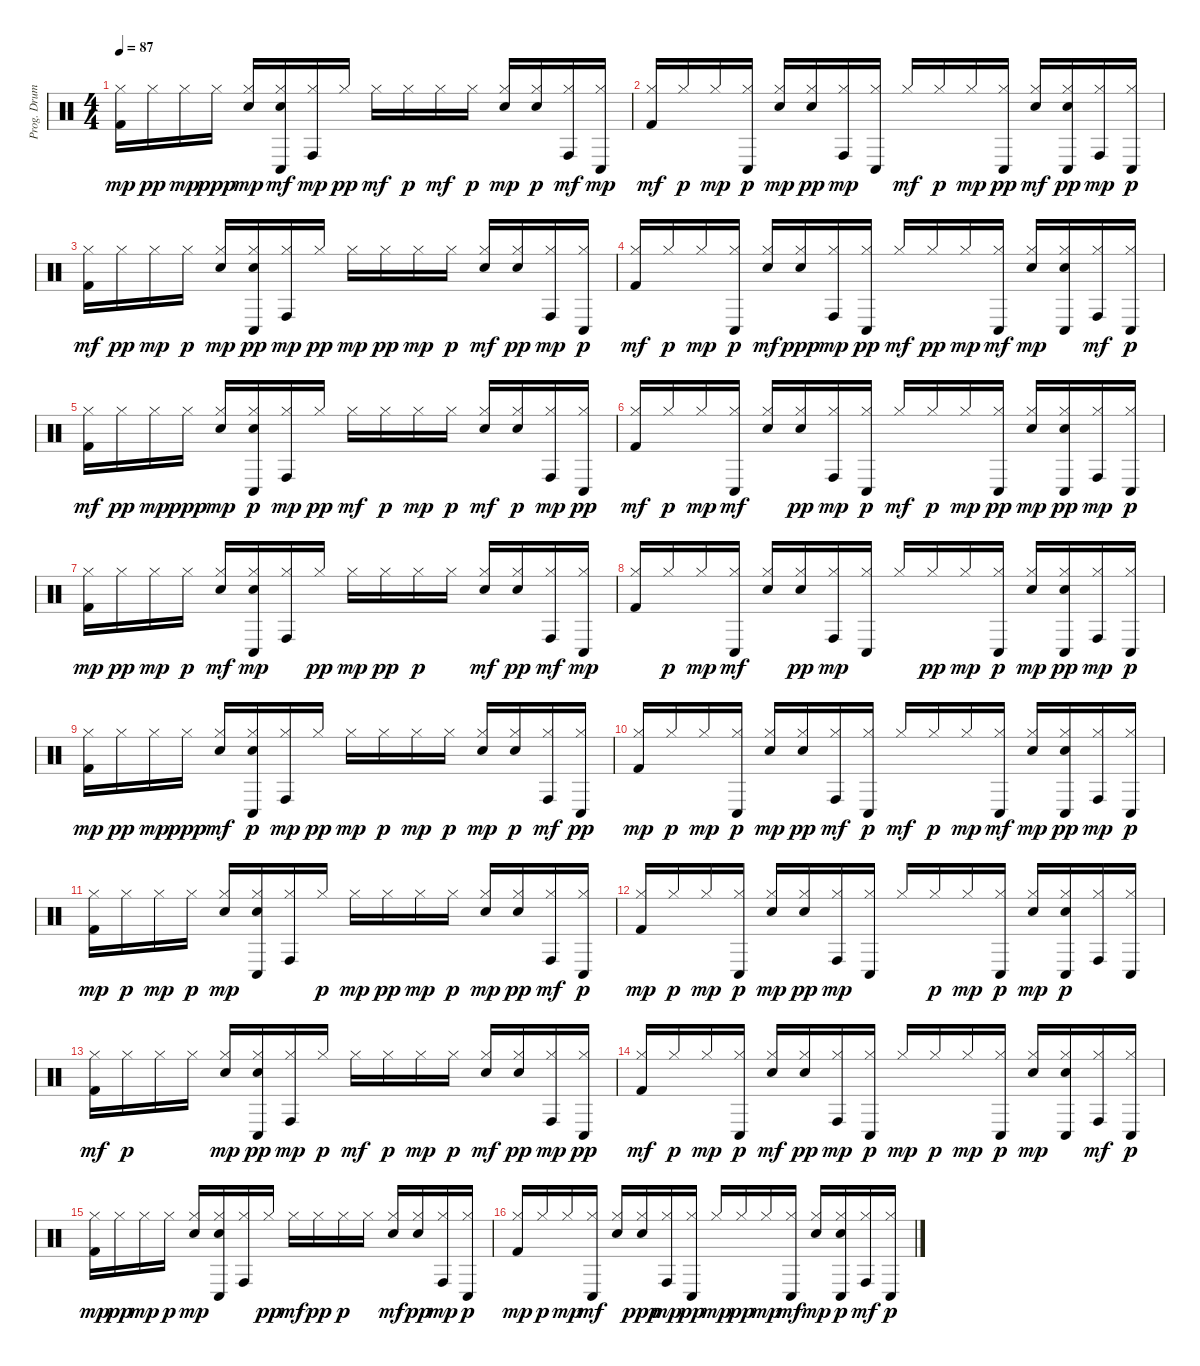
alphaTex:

\track ("Prog. Drums" "Prog. Drum") {instrument percussion}
\staff {score}
\articulation defaults
\ts (4 4)
\tempo 87
\clef neutral
\ks c
("Kick (hit) 2" "Hi-Hat (closed)").16{dy mp} "Hi-Hat (closed)".16{dy pp} "Hi-Hat (closed)".16{dy mp} "Hi-Hat (closed)".16{dy ppp} ("Snare (hit) 2" "Hi-Hat (closed)").16{dy mp} ("Snare (hit) 2" "Hi-Hat (closed)" "Conga low (hit)").16{dy mf} ("Conga high (hit)" "Hi-Hat (closed)").16{dy mp} "Hi-Hat (closed)".16{dy pp} "Hi-Hat (closed)".16{dy mf} "Hi-Hat (closed)".16{dy p} "Hi-Hat (closed)".16{dy mf} "Hi-Hat (closed)".16{dy p} ("Hi-Hat (closed)" "Snare (hit) 2").16{dy mp} ("Snare (hit) 2" "Hi-Hat (closed)").16{dy p} ("Conga high (hit)" "Hi-Hat (closed)").16{dy mf} ("Hi-Hat (closed)" "Conga low (hit)").16{dy mp} |
("Hi-Hat (closed)" "Kick (hit) 2").16{dy mf} "Hi-Hat (closed)".16{dy p} "Hi-Hat (closed)".16{dy mp} ("Conga low (hit)" "Hi-Hat (closed)").16{dy p} ("Snare (hit) 2" "Hi-Hat (closed)").16{dy mp} ("Snare (hit) 2" "Hi-Hat (closed)").16{dy pp} ("Conga high (hit)" "Hi-Hat (closed)").16{dy mp} ("Hi-Hat (closed)" "Conga low (hit)").16 "Hi-Hat (closed)".16{dy mf} "Hi-Hat (closed)".16{dy p} "Hi-Hat (closed)".16{dy mp} ("Conga low (hit)" "Hi-Hat (closed)").16{dy pp} ("Hi-Hat (closed)" "Snare (hit) 2").16{dy mf} ("Snare (hit) 2" "Conga low (hit)" "Hi-Hat (closed)").16{dy pp} ("Conga high (hit)" "Hi-Hat (closed)").16{dy mp} ("Conga low (hit)" "Hi-Hat (closed)").16{dy p} |
("Hi-Hat (closed)" "Kick (hit) 2").16{dy mf} "Hi-Hat (closed)".16{dy pp} "Hi-Hat (closed)".16{dy mp} "Hi-Hat (closed)".16{dy p} ("Hi-Hat (closed)" "Snare (hit) 2").16{dy mp} ("Conga low (hit)" "Hi-Hat (closed)" "Snare (hit) 2").16{dy pp} ("Conga high (hit)" "Hi-Hat (closed)").16{dy mp} "Hi-Hat (closed)".16{dy pp} "Hi-Hat (closed)".16{dy mp} "Hi-Hat (closed)".16{dy pp} "Hi-Hat (closed)".16{dy mp} "Hi-Hat (closed)".16{dy p} ("Snare (hit) 2" "Hi-Hat (closed)").16{dy mf} ("Hi-Hat (closed)" "Snare (hit) 2").16{dy pp} ("Conga high (hit)" "Hi-Hat (closed)").16{dy mp} ("Conga low (hit)" "Hi-Hat (closed)").16{dy p} |
("Hi-Hat (closed)" "Kick (hit) 2").16{dy mf} "Hi-Hat (closed)".16{dy p} "Hi-Hat (closed)".16{dy mp} ("Conga low (hit)" "Hi-Hat (closed)").16{dy p} ("Hi-Hat (closed)" "Snare (hit) 2").16{dy mf} ("Snare (hit) 2" "Hi-Hat (closed)").16{dy ppp} ("Conga high (hit)" "Hi-Hat (closed)").16{dy mp} ("Conga low (hit)" "Hi-Hat (closed)").16{dy pp} "Hi-Hat (closed)".16{dy mf} "Hi-Hat (closed)".16{dy pp} "Hi-Hat (closed)".16{dy mp} ("Hi-Hat (closed)" "Conga low (hit)").16{dy mf} ("Snare (hit) 2" "Hi-Hat (closed)").16{dy mp} ("Hi-Hat (closed)" "Snare (hit) 2" "Conga low (hit)").16 ("Hi-Hat (closed)" "Conga high (hit)").16{dy mf} ("Conga low (hit)" "Hi-Hat (closed)").16{dy p} |
("Hi-Hat (closed)" "Kick (hit) 2").16{dy mf} "Hi-Hat (closed)".16{dy pp} "Hi-Hat (closed)".16{dy mp} "Hi-Hat (closed)".16{dy ppp} ("Snare (hit) 2" "Hi-Hat (closed)").16{dy mp} ("Snare (hit) 2" "Conga low (hit)" "Hi-Hat (closed)").16{dy p} ("Conga high (hit)" "Hi-Hat (closed)").16{dy mp} "Hi-Hat (closed)".16{dy pp} "Hi-Hat (closed)".16{dy mf} "Hi-Hat (closed)".16{dy p} "Hi-Hat (closed)".16{dy mp} "Hi-Hat (closed)".16{dy p} ("Hi-Hat (closed)" "Snare (hit) 2").16{dy mf} ("Snare (hit) 2" "Hi-Hat (closed)").16{dy p} ("Conga high (hit)" "Hi-Hat (closed)").16{dy mp} ("Conga low (hit)" "Hi-Hat (closed)").16{dy pp} |
("Hi-Hat (closed)" "Kick (hit) 2").16{dy mf} "Hi-Hat (closed)".16{dy p} "Hi-Hat (closed)".16{dy mp} ("Hi-Hat (closed)" "Conga low (hit)").16{dy mf} ("Snare (hit) 2" "Hi-Hat (closed)").16 ("Snare (hit) 2" "Hi-Hat (closed)").16{dy pp} ("Conga high (hit)" "Hi-Hat (closed)").16{dy mp} ("Conga low (hit)" "Hi-Hat (closed)").16{dy p} "Hi-Hat (closed)".16{dy mf} "Hi-Hat (closed)".16{dy p} "Hi-Hat (closed)".16{dy mp} ("Conga low (hit)" "Hi-Hat (closed)").16{dy pp} ("Snare (hit) 2" "Hi-Hat (closed)").16{dy mp} ("Snare (hit) 2" "Conga low (hit)" "Hi-Hat (closed)").16{dy pp} ("Hi-Hat (closed)" "Conga high (hit)").16{dy mp} ("Conga low (hit)" "Hi-Hat (closed)").16{dy p} |
("Kick (hit) 2" "Hi-Hat (closed)").16{dy mp} "Hi-Hat (closed)".16{dy pp} "Hi-Hat (closed)".16{dy mp} "Hi-Hat (closed)".16{dy p} ("Hi-Hat (closed)" "Snare (hit) 2").16{dy mf} ("Hi-Hat (closed)" "Snare (hit) 2" "Conga low (hit)").16{dy mp} ("Conga high (hit)" "Hi-Hat (closed)").16 "Hi-Hat (closed)".16{dy pp} "Hi-Hat (closed)".16{dy mp} "Hi-Hat (closed)".16{dy pp} "Hi-Hat (closed)".16{dy p} "Hi-Hat (closed)".16 ("Hi-Hat (closed)" "Snare (hit) 2").16{dy mf} ("Snare (hit) 2" "Hi-Hat (closed)").16{dy pp} ("Hi-Hat (closed)" "Conga high (hit)").16{dy mf} ("Hi-Hat (closed)" "Conga low (hit)").16{dy mp} |
("Kick (hit) 2" "Hi-Hat (closed)").16 "Hi-Hat (closed)".16{dy p} "Hi-Hat (closed)".16{dy mp} ("Hi-Hat (closed)" "Conga low (hit)").16{dy mf} ("Snare (hit) 2" "Hi-Hat (closed)").16 ("Hi-Hat (closed)" "Snare (hit) 2").16{dy pp} ("Conga high (hit)" "Hi-Hat (closed)").16{dy mp} ("Hi-Hat (closed)" "Conga low (hit)").16 "Hi-Hat (closed)".16 "Hi-Hat (closed)".16{dy pp} "Hi-Hat (closed)".16{dy mp} ("Conga low (hit)" "Hi-Hat (closed)").16{dy p} ("Snare (hit) 2" "Hi-Hat (closed)").16{dy mp} ("Snare (hit) 2" "Conga low (hit)" "Hi-Hat (closed)").16{dy pp} ("Conga high (hit)" "Hi-Hat (closed)").16{dy mp} ("Conga low (hit)" "Hi-Hat (closed)").16{dy p} |
("Kick (hit) 2" "Hi-Hat (closed)").16{dy mp} "Hi-Hat (closed)".16{dy pp} "Hi-Hat (closed)".16{dy mp} "Hi-Hat (closed)".16{dy ppp} ("Hi-Hat (closed)" "Snare (hit) 2").16{dy mf} ("Snare (hit) 2" "Conga low (hit)" "Hi-Hat (closed)").16{dy p} ("Conga high (hit)" "Hi-Hat (closed)").16{dy mp} "Hi-Hat (closed)".16{dy pp} "Hi-Hat (closed)".16{dy mp} "Hi-Hat (closed)".16{dy p} "Hi-Hat (closed)".16{dy mp} "Hi-Hat (closed)".16{dy p} ("Snare (hit) 2" "Hi-Hat (closed)").16{dy mp} ("Snare (hit) 2" "Hi-Hat (closed)").16{dy p} ("Hi-Hat (closed)" "Conga high (hit)").16{dy mf} ("Conga low (hit)" "Hi-Hat (closed)").16{dy pp} |
("Kick (hit) 2" "Hi-Hat (closed)").16{dy mp} "Hi-Hat (closed)".16{dy p} "Hi-Hat (closed)".16{dy mp} ("Conga low (hit)" "Hi-Hat (closed)").16{dy p} ("Snare (hit) 2" "Hi-Hat (closed)").16{dy mp} ("Hi-Hat (closed)" "Snare (hit) 2").16{dy pp} ("Hi-Hat (closed)" "Conga high (hit)").16{dy mf} ("Conga low (hit)" "Hi-Hat (closed)").16{dy p} "Hi-Hat (closed)".16{dy mf} "Hi-Hat (closed)".16{dy p} "Hi-Hat (closed)".16{dy mp} ("Hi-Hat (closed)" "Conga low (hit)").16{dy mf} ("Hi-Hat (closed)" "Snare (hit) 2").16{dy mp} ("Snare (hit) 2" "Conga low (hit)" "Hi-Hat (closed)").16{dy pp} ("Conga high (hit)" "Hi-Hat (closed)").16{dy mp} ("Conga low (hit)" "Hi-Hat (closed)").16{dy p} |
("Kick (hit) 2" "Hi-Hat (closed)").16{dy mp} "Hi-Hat (closed)".16{dy p} "Hi-Hat (closed)".16{dy mp} "Hi-Hat (closed)".16{dy p} ("Snare (hit) 2" "Hi-Hat (closed)").16{dy mp} ("Snare (hit) 2" "Hi-Hat (closed)" "Conga low (hit)").16 ("Conga high (hit)" "Hi-Hat (closed)").16 "Hi-Hat (closed)".16{dy p} "Hi-Hat (closed)".16{dy mp} "Hi-Hat (closed)".16{dy pp} "Hi-Hat (closed)".16{dy mp} "Hi-Hat (closed)".16{dy p} ("Snare (hit) 2" "Hi-Hat (closed)").16{dy mp} ("Hi-Hat (closed)" "Snare (hit) 2").16{dy pp} ("Hi-Hat (closed)" "Conga high (hit)").16{dy mf} ("Conga low (hit)" "Hi-Hat (closed)").16{dy p} |
("Kick (hit) 2" "Hi-Hat (closed)").16{dy mp} "Hi-Hat (closed)".16{dy p} "Hi-Hat (closed)".16{dy mp} ("Conga low (hit)" "Hi-Hat (closed)").16{dy p} ("Snare (hit) 2" "Hi-Hat (closed)").16{dy mp} ("Hi-Hat (closed)" "Snare (hit) 2").16{dy pp} ("Conga high (hit)" "Hi-Hat (closed)").16{dy mp} ("Hi-Hat (closed)" "Conga low (hit)").16 "Hi-Hat (closed)".16 "Hi-Hat (closed)".16{dy p} "Hi-Hat (closed)".16{dy mp} ("Conga low (hit)" "Hi-Hat (closed)").16{dy p} ("Snare (hit) 2" "Hi-Hat (closed)").16{dy mp} ("Snare (hit) 2" "Conga low (hit)" "Hi-Hat (closed)").16{dy p} ("Conga high (hit)" "Hi-Hat (closed)").16 ("Conga low (hit)" "Hi-Hat (closed)").16 |
("Hi-Hat (closed)" "Kick (hit) 2").16{dy mf} "Hi-Hat (closed)".16{dy p} "Hi-Hat (closed)".16 "Hi-Hat (closed)".16 ("Snare (hit) 2" "Hi-Hat (closed)").16{dy mp} ("Snare (hit) 2" "Conga low (hit)" "Hi-Hat (closed)").16{dy pp} ("Conga high (hit)" "Hi-Hat (closed)").16{dy mp} "Hi-Hat (closed)".16{dy p} "Hi-Hat (closed)".16{dy mf} "Hi-Hat (closed)".16{dy p} "Hi-Hat (closed)".16{dy mp} "Hi-Hat (closed)".16{dy p} ("Snare (hit) 2" "Hi-Hat (closed)").16{dy mf} ("Hi-Hat (closed)" "Snare (hit) 2").16{dy pp} ("Conga high (hit)" "Hi-Hat (closed)").16{dy mp} ("Conga low (hit)" "Hi-Hat (closed)").16{dy pp} |
("Kick (hit) 2" "Hi-Hat (closed)").16{dy mf} "Hi-Hat (closed)".16{dy p} "Hi-Hat (closed)".16{dy mp} ("Conga low (hit)" "Hi-Hat (closed)").16{dy p} ("Hi-Hat (closed)" "Snare (hit) 2").16{dy mf} ("Hi-Hat (closed)" "Snare (hit) 2").16{dy pp} ("Conga high (hit)" "Hi-Hat (closed)").16{dy mp} ("Conga low (hit)" "Hi-Hat (closed)").16{dy p} "Hi-Hat (closed)".16{dy mp} "Hi-Hat (closed)".16{dy p} "Hi-Hat (closed)".16{dy mp} ("Conga low (hit)" "Hi-Hat (closed)").16{dy p} ("Snare (hit) 2" "Hi-Hat (closed)").16{dy mp} ("Hi-Hat (closed)" "Snare (hit) 2" "Conga low (hit)").16 ("Hi-Hat (closed)" "Conga high (hit)").16{dy mf} ("Conga low (hit)" "Hi-Hat (closed)").16{dy p} |
("Kick (hit) 2" "Hi-Hat (closed)").16{dy mp} "Hi-Hat (closed)".16{dy pp} "Hi-Hat (closed)".16{dy mp} "Hi-Hat (closed)".16{dy p} ("Snare (hit) 2" "Hi-Hat (closed)").16{dy mp} ("Snare (hit) 2" "Hi-Hat (closed)" "Conga low (hit)").16 ("Conga high (hit)" "Hi-Hat (closed)").16 "Hi-Hat (closed)".16{dy pp} "Hi-Hat (closed)".16{dy mf} "Hi-Hat (closed)".16{dy pp} "Hi-Hat (closed)".16{dy p} "Hi-Hat (closed)".16 ("Hi-Hat (closed)" "Snare (hit) 2").16{dy mf} ("Hi-Hat (closed)" "Snare (hit) 2").16{dy pp} ("Conga high (hit)" "Hi-Hat (closed)").16{dy mp} ("Conga low (hit)" "Hi-Hat (closed)").16{dy p} |
("Kick (hit) 2" "Hi-Hat (closed)").16{dy mp} "Hi-Hat (closed)".16{dy p} "Hi-Hat (closed)".16{dy mp} ("Hi-Hat (closed)" "Conga low (hit)").16{dy mf} ("Snare (hit) 2" "Hi-Hat (closed)").16 ("Snare (hit) 2" "Hi-Hat (closed)").16{dy ppp} ("Conga high (hit)" "Hi-Hat (closed)").16{dy mp} ("Conga low (hit)" "Hi-Hat (closed)").16{dy pp} "Hi-Hat (closed)".16{dy mp} "Hi-Hat (closed)".16{dy pp} "Hi-Hat (closed)".16{dy mp} ("Hi-Hat (closed)" "Conga low (hit)").16{dy mf} ("Hi-Hat (closed)" "Snare (hit) 2").16{dy mp} ("Snare (hit) 2" "Conga low (hit)" "Hi-Hat (closed)").16{dy p} ("Hi-Hat (closed)" "Conga high (hit)").16{dy mf} ("Conga low (hit)" "Hi-Hat (closed)").16{dy p}
